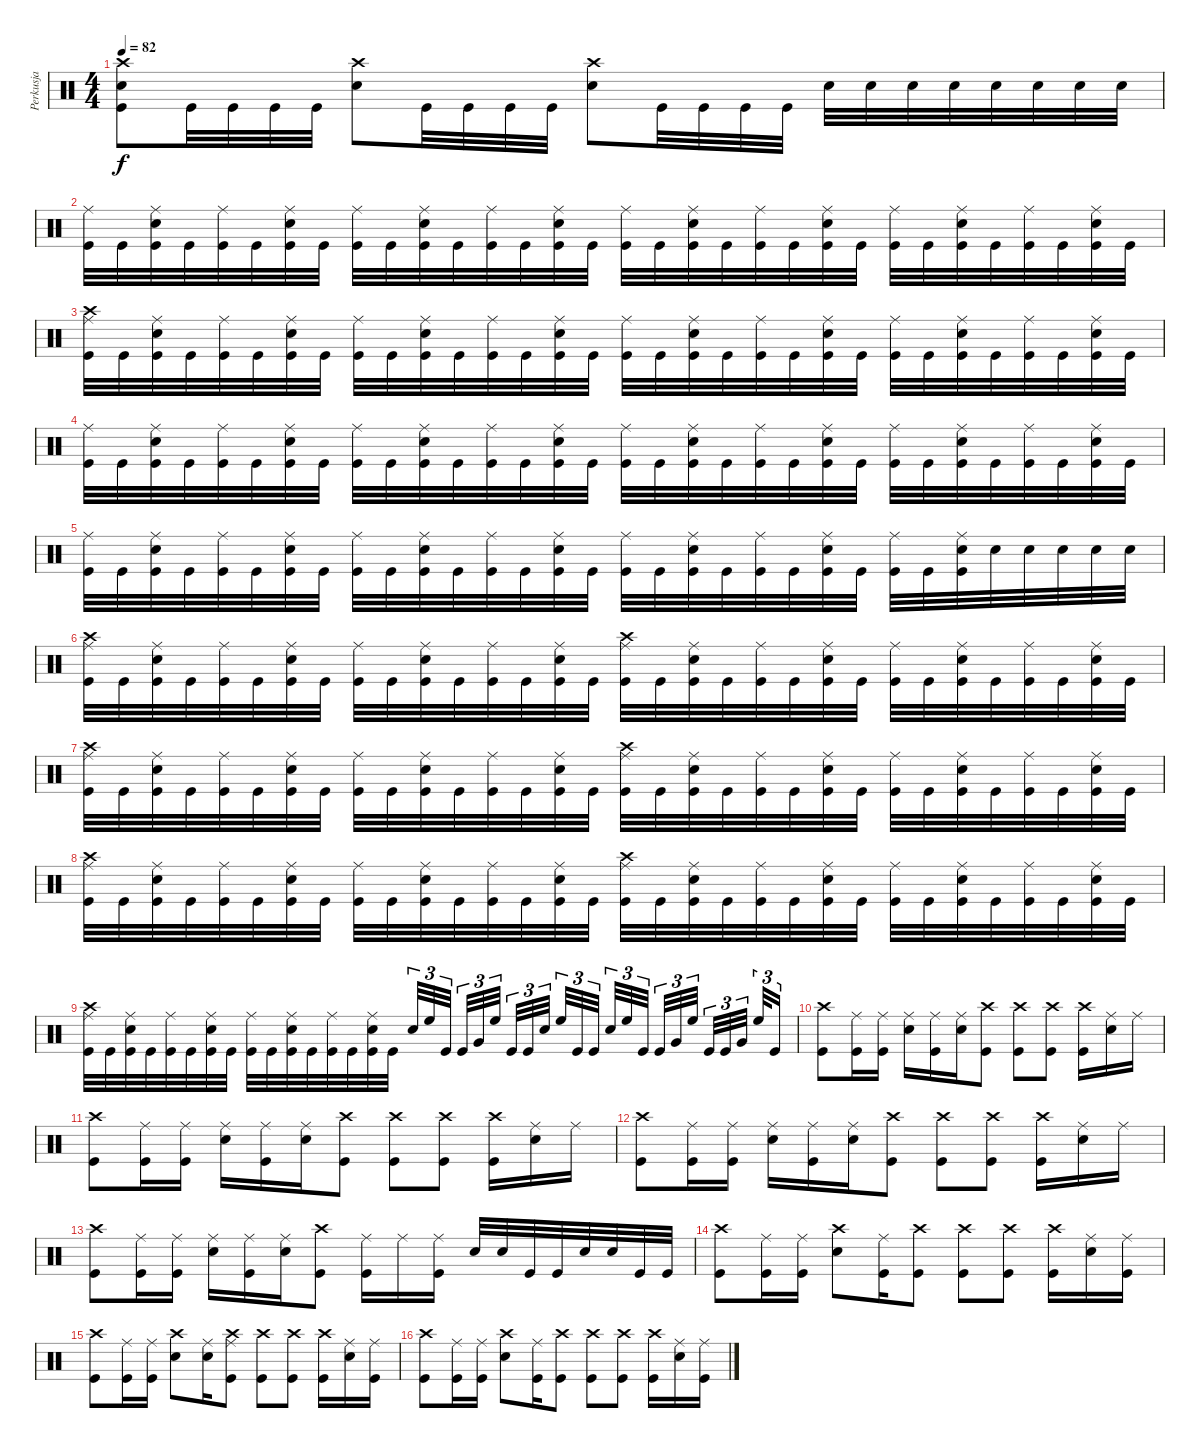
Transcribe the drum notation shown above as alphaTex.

\track ("Perkusja" "Perkusja") {instrument percussion}
\staff {score}
\articulation defaults
\ts (4 4)
\tempo 82
\clef neutral
\ks c
("Crash high (hit)" "Electric Snare (hit)" "Kick (hit)").8{dy f} "Kick (hit)".32 "Kick (hit)".32 "Kick (hit)".32 "Kick (hit)".32 ("Crash high (hit)" "Electric Snare (hit)").8 "Kick (hit)".32 "Kick (hit)".32 "Kick (hit)".32 "Kick (hit)".32 ("Crash high (hit)" "Electric Snare (hit)").8 "Kick (hit)".32 "Kick (hit)".32 "Kick (hit)".32 "Kick (hit)".32 "Electric Snare (hit)".32 "Electric Snare (hit)".32 "Electric Snare (hit)".32 "Electric Snare (hit)".32 "Electric Snare (hit)".32 "Electric Snare (hit)".32 "Electric Snare (hit)".32 "Electric Snare (hit)".32 |
("Ride (middle)" "Kick (hit)").32 "Kick (hit)".32 ("Ride (middle)" "Electric Snare (hit)" "Kick (hit)").32 "Kick (hit)".32 ("Ride (middle)" "Kick (hit)").32 "Kick (hit)".32 ("Ride (middle)" "Electric Snare (hit)" "Kick (hit)").32 "Kick (hit)".32 ("Ride (middle)" "Kick (hit)").32 "Kick (hit)".32 ("Ride (middle)" "Electric Snare (hit)" "Kick (hit)").32 "Kick (hit)".32 ("Ride (middle)" "Kick (hit)").32 "Kick (hit)".32 ("Ride (middle)" "Electric Snare (hit)" "Kick (hit)").32 "Kick (hit)".32 ("Ride (middle)" "Kick (hit)").32 "Kick (hit)".32 ("Ride (middle)" "Electric Snare (hit)" "Kick (hit)").32 "Kick (hit)".32 ("Ride (middle)" "Kick (hit)").32 "Kick (hit)".32 ("Ride (middle)" "Electric Snare (hit)" "Kick (hit)").32 "Kick (hit)".32 ("Ride (middle)" "Kick (hit)").32 "Kick (hit)".32 ("Ride (middle)" "Electric Snare (hit)" "Kick (hit)").32 "Kick (hit)".32 ("Ride (middle)" "Kick (hit)").32 "Kick (hit)".32 ("Ride (middle)" "Electric Snare (hit)" "Kick (hit)").32 "Kick (hit)".32 |
("Crash high (hit)" "Ride (middle)" "Kick (hit)").32 "Kick (hit)".32 ("Ride (middle)" "Electric Snare (hit)" "Kick (hit)").32 "Kick (hit)".32 ("Ride (middle)" "Kick (hit)").32 "Kick (hit)".32 ("Ride (middle)" "Electric Snare (hit)" "Kick (hit)").32 "Kick (hit)".32 ("Ride (middle)" "Kick (hit)").32 "Kick (hit)".32 ("Ride (middle)" "Electric Snare (hit)" "Kick (hit)").32 "Kick (hit)".32 ("Ride (middle)" "Kick (hit)").32 "Kick (hit)".32 ("Ride (middle)" "Electric Snare (hit)" "Kick (hit)").32 "Kick (hit)".32 ("Ride (middle)" "Kick (hit)").32 "Kick (hit)".32 ("Ride (middle)" "Electric Snare (hit)" "Kick (hit)").32 "Kick (hit)".32 ("Ride (middle)" "Kick (hit)").32 "Kick (hit)".32 ("Ride (middle)" "Electric Snare (hit)" "Kick (hit)").32 "Kick (hit)".32 ("Ride (middle)" "Kick (hit)").32 "Kick (hit)".32 ("Ride (middle)" "Electric Snare (hit)" "Kick (hit)").32 "Kick (hit)".32 ("Ride (middle)" "Kick (hit)").32 "Kick (hit)".32 ("Ride (middle)" "Electric Snare (hit)" "Kick (hit)").32 "Kick (hit)".32 |
("Ride (middle)" "Kick (hit)").32 "Kick (hit)".32 ("Ride (middle)" "Electric Snare (hit)" "Kick (hit)").32 "Kick (hit)".32 ("Ride (middle)" "Kick (hit)").32 "Kick (hit)".32 ("Ride (middle)" "Electric Snare (hit)" "Kick (hit)").32 "Kick (hit)".32 ("Ride (middle)" "Kick (hit)").32 "Kick (hit)".32 ("Ride (middle)" "Electric Snare (hit)" "Kick (hit)").32 "Kick (hit)".32 ("Ride (middle)" "Kick (hit)").32 "Kick (hit)".32 ("Ride (middle)" "Electric Snare (hit)" "Kick (hit)").32 "Kick (hit)".32 ("Ride (middle)" "Kick (hit)").32 "Kick (hit)".32 ("Ride (middle)" "Electric Snare (hit)" "Kick (hit)").32 "Kick (hit)".32 ("Ride (middle)" "Kick (hit)").32 "Kick (hit)".32 ("Ride (middle)" "Electric Snare (hit)" "Kick (hit)").32 "Kick (hit)".32 ("Ride (middle)" "Kick (hit)").32 "Kick (hit)".32 ("Ride (middle)" "Electric Snare (hit)" "Kick (hit)").32 "Kick (hit)".32 ("Ride (middle)" "Kick (hit)").32 "Kick (hit)".32 ("Ride (middle)" "Electric Snare (hit)" "Kick (hit)").32 "Kick (hit)".32 |
("Ride (middle)" "Kick (hit)").32 "Kick (hit)".32 ("Ride (middle)" "Electric Snare (hit)" "Kick (hit)").32 "Kick (hit)".32 ("Ride (middle)" "Kick (hit)").32 "Kick (hit)".32 ("Ride (middle)" "Electric Snare (hit)" "Kick (hit)").32 "Kick (hit)".32 ("Ride (middle)" "Kick (hit)").32 "Kick (hit)".32 ("Ride (middle)" "Electric Snare (hit)" "Kick (hit)").32 "Kick (hit)".32 ("Ride (middle)" "Kick (hit)").32 "Kick (hit)".32 ("Ride (middle)" "Electric Snare (hit)" "Kick (hit)").32 "Kick (hit)".32 ("Ride (middle)" "Kick (hit)").32 "Kick (hit)".32 ("Ride (middle)" "Electric Snare (hit)" "Kick (hit)").32 "Kick (hit)".32 ("Ride (middle)" "Kick (hit)").32 "Kick (hit)".32 ("Ride (middle)" "Electric Snare (hit)" "Kick (hit)").32 "Kick (hit)".32 ("Ride (middle)" "Kick (hit)").32 "Kick (hit)".32 ("Ride (middle)" "Electric Snare (hit)" "Kick (hit)").32 "Electric Snare (hit)".32 "Electric Snare (hit)".32 "Electric Snare (hit)".32 "Electric Snare (hit)".32 "Electric Snare (hit)".32 |
("Crash high (hit)" "Ride (middle)" "Kick (hit)").32 "Kick (hit)".32 ("Ride (middle)" "Electric Snare (hit)" "Kick (hit)").32 "Kick (hit)".32 ("Ride (middle)" "Kick (hit)").32 "Kick (hit)".32 ("Ride (middle)" "Electric Snare (hit)" "Kick (hit)").32 "Kick (hit)".32 ("Ride (middle)" "Kick (hit)").32 "Kick (hit)".32 ("Ride (middle)" "Electric Snare (hit)" "Kick (hit)").32 "Kick (hit)".32 ("Ride (middle)" "Kick (hit)").32 "Kick (hit)".32 ("Ride (middle)" "Electric Snare (hit)" "Kick (hit)").32 "Kick (hit)".32 ("Crash high (hit)" "Ride (middle)" "Kick (hit)").32 "Kick (hit)".32 ("Ride (middle)" "Electric Snare (hit)" "Kick (hit)").32 "Kick (hit)".32 ("Ride (middle)" "Kick (hit)").32 "Kick (hit)".32 ("Ride (middle)" "Electric Snare (hit)" "Kick (hit)").32 "Kick (hit)".32 ("Ride (middle)" "Kick (hit)").32 "Kick (hit)".32 ("Ride (middle)" "Electric Snare (hit)" "Kick (hit)").32 "Kick (hit)".32 ("Ride (middle)" "Kick (hit)").32 "Kick (hit)".32 ("Ride (middle)" "Electric Snare (hit)" "Kick (hit)").32 "Kick (hit)".32 |
("Crash high (hit)" "Ride (middle)" "Kick (hit)").32 "Kick (hit)".32 ("Ride (middle)" "Electric Snare (hit)" "Kick (hit)").32 "Kick (hit)".32 ("Ride (middle)" "Kick (hit)").32 "Kick (hit)".32 ("Ride (middle)" "Electric Snare (hit)" "Kick (hit)").32 "Kick (hit)".32 ("Ride (middle)" "Kick (hit)").32 "Kick (hit)".32 ("Ride (middle)" "Electric Snare (hit)" "Kick (hit)").32 "Kick (hit)".32 ("Ride (middle)" "Kick (hit)").32 "Kick (hit)".32 ("Ride (middle)" "Electric Snare (hit)" "Kick (hit)").32 "Kick (hit)".32 ("Crash high (hit)" "Ride (middle)" "Kick (hit)").32 "Kick (hit)".32 ("Ride (middle)" "Electric Snare (hit)" "Kick (hit)").32 "Kick (hit)".32 ("Ride (middle)" "Kick (hit)").32 "Kick (hit)".32 ("Ride (middle)" "Electric Snare (hit)" "Kick (hit)").32 "Kick (hit)".32 ("Ride (middle)" "Kick (hit)").32 "Kick (hit)".32 ("Ride (middle)" "Electric Snare (hit)" "Kick (hit)").32 "Kick (hit)".32 ("Ride (middle)" "Kick (hit)").32 "Kick (hit)".32 ("Ride (middle)" "Electric Snare (hit)" "Kick (hit)").32 "Kick (hit)".32 |
("Crash high (hit)" "Ride (middle)" "Kick (hit)").32 "Kick (hit)".32 ("Ride (middle)" "Electric Snare (hit)" "Kick (hit)").32 "Kick (hit)".32 ("Ride (middle)" "Kick (hit)").32 "Kick (hit)".32 ("Ride (middle)" "Electric Snare (hit)" "Kick (hit)").32 "Kick (hit)".32 ("Ride (middle)" "Kick (hit)").32 "Kick (hit)".32 ("Ride (middle)" "Electric Snare (hit)" "Kick (hit)").32 "Kick (hit)".32 ("Ride (middle)" "Kick (hit)").32 "Kick (hit)".32 ("Ride (middle)" "Electric Snare (hit)" "Kick (hit)").32 "Kick (hit)".32 ("Crash high (hit)" "Ride (middle)" "Kick (hit)").32 "Kick (hit)".32 ("Ride (middle)" "Electric Snare (hit)" "Kick (hit)").32 "Kick (hit)".32 ("Ride (middle)" "Kick (hit)").32 "Kick (hit)".32 ("Ride (middle)" "Electric Snare (hit)" "Kick (hit)").32 "Kick (hit)".32 ("Ride (middle)" "Kick (hit)").32 "Kick (hit)".32 ("Ride (middle)" "Electric Snare (hit)" "Kick (hit)").32 "Kick (hit)".32 ("Ride (middle)" "Kick (hit)").32 "Kick (hit)".32 ("Ride (middle)" "Electric Snare (hit)" "Kick (hit)").32 "Kick (hit)".32 |
("Crash high (hit)" "Ride (middle)" "Kick (hit)").32 "Kick (hit)".32 ("Ride (middle)" "Electric Snare (hit)" "Kick (hit)").32 "Kick (hit)".32 ("Ride (middle)" "Kick (hit)").32 "Kick (hit)".32 ("Ride (middle)" "Electric Snare (hit)" "Kick (hit)").32 "Kick (hit)".32 ("Ride (middle)" "Kick (hit)").32 "Kick (hit)".32 ("Ride (middle)" "Electric Snare (hit)" "Kick (hit)").32 "Kick (hit)".32 ("Ride (middle)" "Kick (hit)").32 "Kick (hit)".32 ("Ride (middle)" "Electric Snare (hit)" "Kick (hit)").32 "Kick (hit)".32 "Electric Snare (hit)".32{tu (3 2)} "High Floor Tom (hit)".32{tu (3 2)} "Kick (hit)".32{tu (3 2) beam splitsecondary} "Kick (hit)".32{tu (3 2)} "Very Low Tom (hit)".32{tu (3 2)} "High Floor Tom (hit)".32{tu (3 2) beam splitsecondary} "Kick (hit)".32{tu (3 2)} "Kick (hit)".32{tu (3 2)} "Electric Snare (hit)".32{tu (3 2) beam splitsecondary} "High Floor Tom (hit)".32{tu (3 2)} "Kick (hit)".32{tu (3 2)} "Kick (hit)".32{tu (3 2)} "Electric Snare (hit)".32{tu (3 2)} "High Floor Tom (hit)".32{tu (3 2)} "Kick (hit)".32{tu (3 2) beam splitsecondary} "Kick (hit)".32{tu (3 2)} "Very Low Tom (hit)".32{tu (3 2)} "High Floor Tom (hit)".32{tu (3 2) beam splitsecondary} "Kick (hit)".32{tu (3 2)} "Kick (hit)".32{tu (3 2)} "Very Low Tom (hit)".32{tu (3 2) beam splitsecondary} "High Floor Tom (hit)".32{tu (3 2)} "Kick (hit)".16{tu (3 2)} |
("Crash high (hit)" "Kick (hit)").8 ("Ride (middle)" "Kick (hit)").16 ("Ride (middle)" "Kick (hit)").16 ("Ride (middle)" "Electric Snare (hit)").16 ("Ride (middle)" "Kick (hit)").16 ("Ride (middle)" "Electric Snare (hit)").16 ("Crash high (hit)" "Kick (hit)").8 ("Crash high (hit)" "Kick (hit)").8 ("Crash high (hit)" "Kick (hit)").8 ("Crash high (hit)" "Kick (hit)").16 ("Ride (middle)" "Electric Snare (hit)").16 "Ride (middle)".16 |
("Crash high (hit)" "Kick (hit)").8 ("Ride (middle)" "Kick (hit)").16 ("Ride (middle)" "Kick (hit)").16 ("Ride (middle)" "Electric Snare (hit)").16 ("Ride (middle)" "Kick (hit)").16 ("Ride (middle)" "Electric Snare (hit)").16 ("Crash high (hit)" "Kick (hit)").8 ("Crash high (hit)" "Kick (hit)").8 ("Crash high (hit)" "Kick (hit)").8 ("Crash high (hit)" "Kick (hit)").16 ("Ride (middle)" "Electric Snare (hit)").16 "Ride (middle)".16 |
("Crash high (hit)" "Kick (hit)").8 ("Ride (middle)" "Kick (hit)").16 ("Ride (middle)" "Kick (hit)").16 ("Ride (middle)" "Electric Snare (hit)").16 ("Ride (middle)" "Kick (hit)").16 ("Ride (middle)" "Electric Snare (hit)").16 ("Crash high (hit)" "Kick (hit)").8 ("Crash high (hit)" "Kick (hit)").8 ("Crash high (hit)" "Kick (hit)").8 ("Crash high (hit)" "Kick (hit)").16 ("Ride (middle)" "Electric Snare (hit)").16 "Ride (middle)".16 |
("Crash high (hit)" "Kick (hit)").8 ("Ride (middle)" "Kick (hit)").16 ("Ride (middle)" "Kick (hit)").16 ("Ride (middle)" "Electric Snare (hit)").16 ("Ride (middle)" "Kick (hit)").16 ("Ride (middle)" "Electric Snare (hit)").16 ("Crash high (hit)" "Kick (hit)").8 ("Ride (middle)" "Kick (hit)").16 "Ride (middle)".16 ("Ride (middle)" "Kick (hit)").16 "Electric Snare (hit)".32 "Electric Snare (hit)".32 "Kick (hit)".32 "Kick (hit)".32 "Electric Snare (hit)".32 "Electric Snare (hit)".32 "Kick (hit)".32 "Kick (hit)".32 |
("Crash high (hit)" "Kick (hit)").8 ("Ride (middle)" "Kick (hit)").16 ("Ride (middle)" "Kick (hit)").16 ("Crash high (hit)" "Electric Snare (hit)").8 ("Ride (middle)" "Kick (hit)").16 ("Crash high (hit)" "Kick (hit)").8 ("Crash high (hit)" "Kick (hit)").8 ("Crash high (hit)" "Kick (hit)").8 ("Crash high (hit)" "Kick (hit)").16 ("Ride (middle)" "Electric Snare (hit)").16 ("Ride (middle)" "Kick (hit)").16 |
("Crash high (hit)" "Kick (hit)").8 ("Ride (middle)" "Kick (hit)").16 ("Ride (middle)" "Kick (hit)").16 ("Crash high (hit)" "Electric Snare (hit)").8 ("Ride (middle)" "Electric Snare (hit)").16 ("Crash high (hit)" "Ride (middle)" "Kick (hit)").8 ("Crash high (hit)" "Kick (hit)").8 ("Crash high (hit)" "Kick (hit)").8 ("Crash high (hit)" "Kick (hit)").16 ("Ride (middle)" "Electric Snare (hit)").16 ("Ride (middle)" "Kick (hit)").16 |
("Crash high (hit)" "Kick (hit)").8 ("Ride (middle)" "Kick (hit)").16 ("Ride (middle)" "Kick (hit)").16 ("Crash high (hit)" "Electric Snare (hit)").8 ("Ride (middle)" "Kick (hit)").16 ("Crash high (hit)" "Kick (hit)").8 ("Crash high (hit)" "Kick (hit)").8 ("Crash high (hit)" "Kick (hit)").8 ("Crash high (hit)" "Kick (hit)").16 ("Ride (middle)" "Electric Snare (hit)").16 ("Ride (middle)" "Kick (hit)").16
